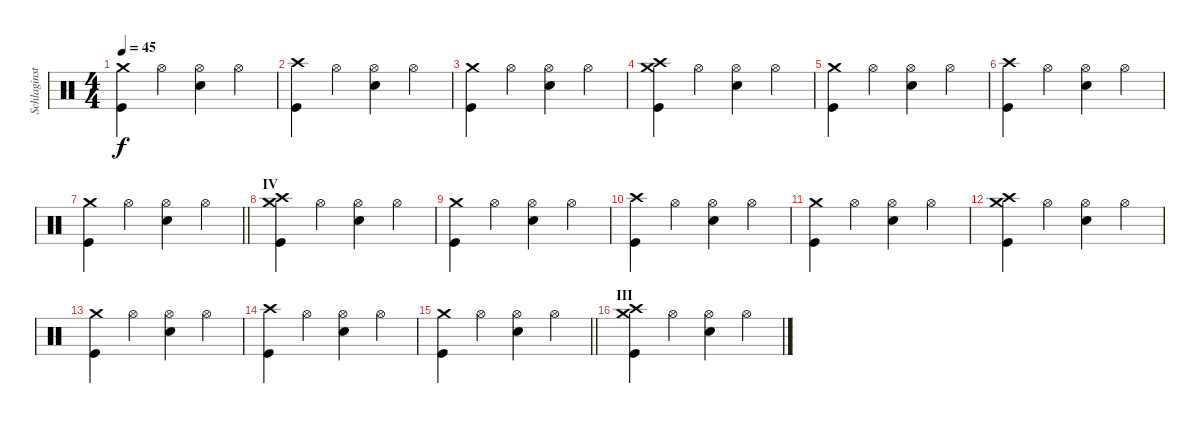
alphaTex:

\track ("Schlaginstrumente - Auswahl" "Schlaginst") {instrument percussion}
\staff {score}
\articulation defaults
\ts (4 4)
\tempo 45
\clef neutral
\ks c
("Crash medium (hit)" "Kick (hit)").4{dy f} "Hi-Hat (open)".4 ("Hi-Hat (open)" "Snare (hit) 2").4 "Hi-Hat (open)".4 |
("Crash high (hit)" "Kick (hit)").4 "Hi-Hat (open)".4 ("Hi-Hat (open)" "Snare (hit) 2").4 "Hi-Hat (open)".4 |
("Crash medium (hit)" "Kick (hit)").4 "Hi-Hat (open)".4 ("Hi-Hat (open)" "Snare (hit) 2").4 "Hi-Hat (open)".4 |
("Crash medium (hit)" "Crash high (hit)" "Kick (hit)").4 "Hi-Hat (open)".4 ("Hi-Hat (open)" "Snare (hit) 2").4 "Hi-Hat (open)".4 |
("Crash medium (hit)" "Kick (hit)").4 "Hi-Hat (open)".4 ("Hi-Hat (open)" "Snare (hit) 2").4 "Hi-Hat (open)".4 |
("Crash high (hit)" "Kick (hit)").4 "Hi-Hat (open)".4 ("Hi-Hat (open)" "Snare (hit) 2").4 "Hi-Hat (open)".4 |
\barLineRight lightlight
("Crash medium (hit)" "Kick (hit)").4 "Hi-Hat (open)".4 ("Hi-Hat (open)" "Snare (hit) 2").4 "Hi-Hat (open)".4 |
\section ("" "IV")
("Crash medium (hit)" "Crash high (hit)" "Kick (hit)").4 "Hi-Hat (open)".4 ("Hi-Hat (open)" "Snare (hit) 2").4 "Hi-Hat (open)".4 |
("Crash medium (hit)" "Kick (hit)").4 "Hi-Hat (open)".4 ("Hi-Hat (open)" "Snare (hit) 2").4 "Hi-Hat (open)".4 |
("Crash high (hit)" "Kick (hit)").4 "Hi-Hat (open)".4 ("Hi-Hat (open)" "Snare (hit) 2").4 "Hi-Hat (open)".4 |
("Crash medium (hit)" "Kick (hit)").4 "Hi-Hat (open)".4 ("Hi-Hat (open)" "Snare (hit) 2").4 "Hi-Hat (open)".4 |
("Crash medium (hit)" "Crash high (hit)" "Kick (hit)").4 "Hi-Hat (open)".4 ("Hi-Hat (open)" "Snare (hit) 2").4 "Hi-Hat (open)".4 |
("Crash medium (hit)" "Kick (hit)").4 "Hi-Hat (open)".4 ("Hi-Hat (open)" "Snare (hit) 2").4 "Hi-Hat (open)".4 |
("Crash high (hit)" "Kick (hit)").4 "Hi-Hat (open)".4 ("Hi-Hat (open)" "Snare (hit) 2").4 "Hi-Hat (open)".4 |
\barLineRight lightlight
("Crash medium (hit)" "Kick (hit)").4 "Hi-Hat (open)".4 ("Hi-Hat (open)" "Snare (hit) 2").4 "Hi-Hat (open)".4 |
\section ("" "III")
("Crash medium (hit)" "Crash high (hit)" "Kick (hit)").4 "Hi-Hat (open)".4 ("Hi-Hat (open)" "Snare (hit) 2").4 "Hi-Hat (open)".4
